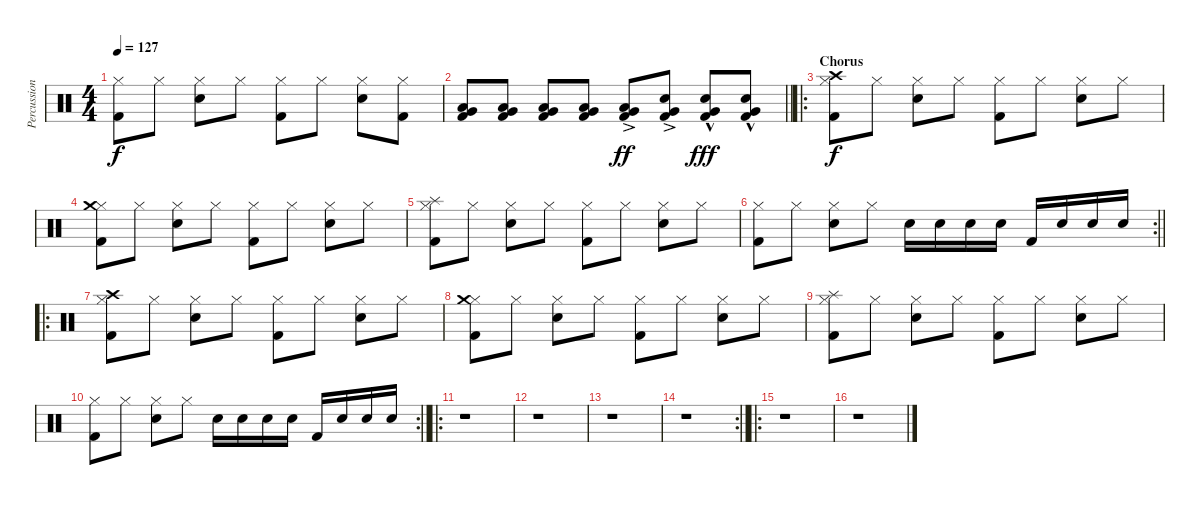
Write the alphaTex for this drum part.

\track ("Percussions" "Percussion") {instrument percussion}
\staff {score}
\articulation defaults
\ts (4 4)
\tempo 127
\clef neutral
\ks c
("Hi-Hat (closed)" "Kick (hit) 2").8{dy f} "Hi-Hat (closed)".8 ("Hi-Hat (closed)" "Electric Snare (hit)").8 "Hi-Hat (closed)".8 ("Hi-Hat (closed)" "Kick (hit) 2").8 "Hi-Hat (closed)".8 ("Hi-Hat (closed)" "Electric Snare (hit)").8 ("Hi-Hat (closed)" "Kick (hit) 2").8 |
\barLineRight lightlight
("Low Floor Tom (hit)" "Kick (hit) 2" "Very Low Tom (hit)").8 ("Low Floor Tom (hit)" "Kick (hit) 2" "Very Low Tom (hit)").8 ("Low Floor Tom (hit)" "Kick (hit) 2" "Very Low Tom (hit)").8 ("Low Floor Tom (hit)" "Kick (hit) 2" "Very Low Tom (hit)").8 ("Low Floor Tom (hit)"{ac} "Kick (hit) 2" "Very Low Tom (hit)").8{dy ff} ("Electric Snare (hit)"{ac} "Kick (hit) 2" "Very Low Tom (hit)").8 ("Electric Snare (hit)"{hac} "Kick (hit) 2" "Very Low Tom (hit)").8{dy fff} ("Electric Snare (hit)"{hac} "Kick (hit) 2" "Very Low Tom (hit)").8 |
\ro
\section ("" "Chorus")
("Hi-Hat (closed)" "Crash high (hit)" "Kick (hit) 2").8{dy f} "Hi-Hat (closed)".8 ("Hi-Hat (closed)" "Electric Snare (hit)").8 "Hi-Hat (closed)".8 ("Hi-Hat (closed)" "Kick (hit) 2").8 "Hi-Hat (closed)".8 ("Hi-Hat (closed)" "Electric Snare (hit)").8 "Hi-Hat (closed)".8 |
("Hi-Hat (closed)" "Crash medium (hit)" "Kick (hit) 2").8 "Hi-Hat (closed)".8 ("Hi-Hat (closed)" "Electric Snare (hit)").8 "Hi-Hat (closed)".8 ("Hi-Hat (closed)" "Kick (hit) 2").8 "Hi-Hat (closed)".8 ("Hi-Hat (closed)" "Electric Snare (hit)").8 "Hi-Hat (closed)".8 |
("Hi-Hat (closed)" "Splash (hit)" "Kick (hit) 2").8 "Hi-Hat (closed)".8 ("Hi-Hat (closed)" "Electric Snare (hit)").8 "Hi-Hat (closed)".8 ("Hi-Hat (closed)" "Kick (hit) 2").8 "Hi-Hat (closed)".8 ("Hi-Hat (closed)" "Electric Snare (hit)").8 "Hi-Hat (closed)".8 |
\rc 2
\barLineRight lightlight
("Hi-Hat (closed)" "Kick (hit) 2").8 "Hi-Hat (closed)".8 ("Hi-Hat (closed)" "Electric Snare (hit)").8 "Hi-Hat (closed)".8 "Electric Snare (hit)".16 "Electric Snare (hit)".16 "Electric Snare (hit)".16 "Electric Snare (hit)".16 "Kick (hit) 2".16 "Electric Snare (hit)".16 "Electric Snare (hit)".16 "Electric Snare (hit)".16 |
\ro
("Hi-Hat (closed)" "Crash high (hit)" "Kick (hit) 2").8 "Hi-Hat (closed)".8 ("Hi-Hat (closed)" "Electric Snare (hit)").8 "Hi-Hat (closed)".8 ("Hi-Hat (closed)" "Kick (hit) 2").8 "Hi-Hat (closed)".8 ("Hi-Hat (closed)" "Electric Snare (hit)").8 "Hi-Hat (closed)".8 |
("Hi-Hat (closed)" "Crash medium (hit)" "Kick (hit) 2").8 "Hi-Hat (closed)".8 ("Hi-Hat (closed)" "Electric Snare (hit)").8 "Hi-Hat (closed)".8 ("Hi-Hat (closed)" "Kick (hit) 2").8 "Hi-Hat (closed)".8 ("Hi-Hat (closed)" "Electric Snare (hit)").8 "Hi-Hat (closed)".8 |
("Hi-Hat (closed)" "Splash (hit)" "Kick (hit) 2").8 "Hi-Hat (closed)".8 ("Hi-Hat (closed)" "Electric Snare (hit)").8 "Hi-Hat (closed)".8 ("Hi-Hat (closed)" "Kick (hit) 2").8 "Hi-Hat (closed)".8 ("Hi-Hat (closed)" "Electric Snare (hit)").8 "Hi-Hat (closed)".8 |
\rc 2
\barLineRight lightlight
("Hi-Hat (closed)" "Kick (hit) 2").8 "Hi-Hat (closed)".8 ("Hi-Hat (closed)" "Electric Snare (hit)").8 "Hi-Hat (closed)".8 "Electric Snare (hit)".16 "Electric Snare (hit)".16 "Electric Snare (hit)".16 "Electric Snare (hit)".16 "Kick (hit) 2".16 "Electric Snare (hit)".16 "Electric Snare (hit)".16 "Electric Snare (hit)".16 |
\ro
r.1 |
r.1 |
r.1 |
\rc 2
\barLineRight lightlight
r.1 |
\ro
r.1 |
r.1
